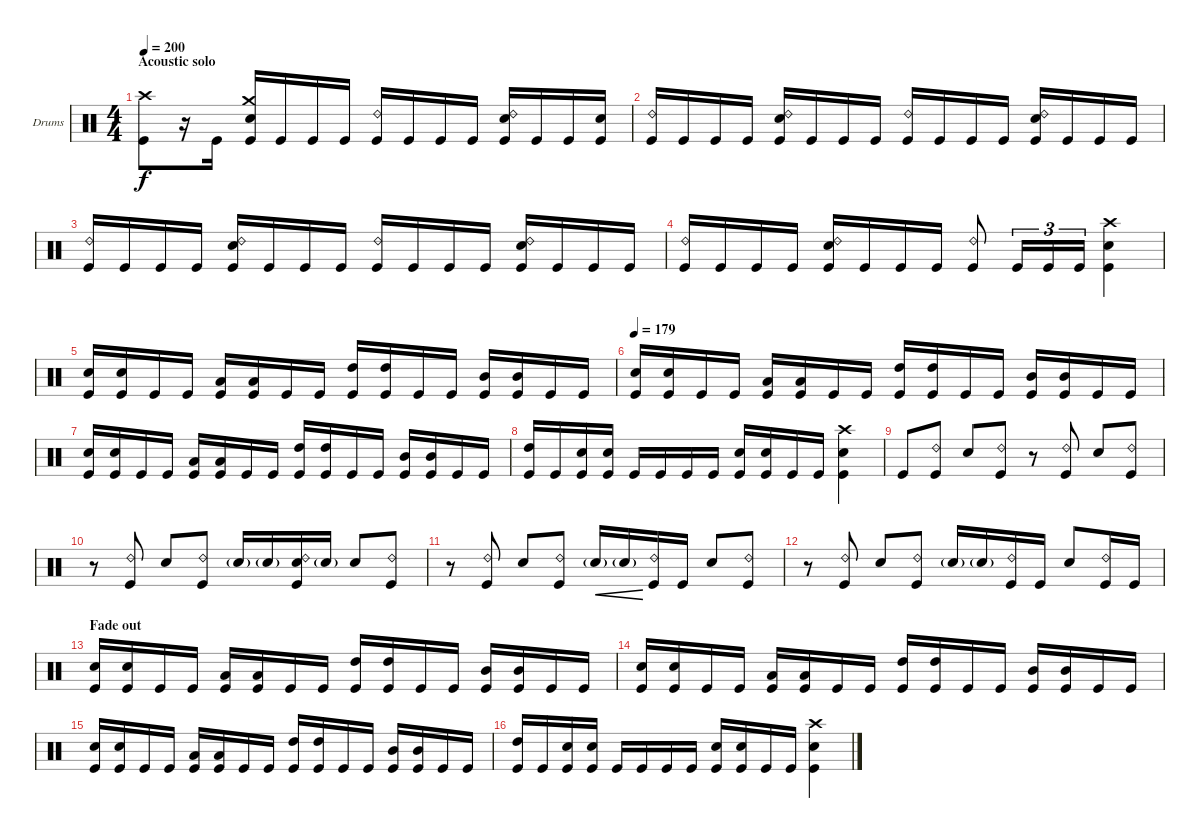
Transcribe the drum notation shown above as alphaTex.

\bracketExtendMode groupsimilarinstruments
\firstSystemTrackNameOrientation horizontal
\otherSystemsTrackNameOrientation horizontal
\track ("Drumkit" "Drums") {multiBarRest instrument percussion}
\staff {score}
\articulation defaults
\ts (4 4)
\section ("" "Acoustic solo")
\tempo 200
\clef neutral
\ks c
("Crash high (hit)" "Kick (hit)").8{dy f} r.16 "Kick (hit)".16 ("Crash medium (hit)" "Snare (hit) 2" "Kick (hit)").16 "Kick (hit)".16 "Kick (hit)".16 "Kick (hit)".16 ("Ride (bell) 2" "Kick (hit)").16 "Kick (hit)".16 "Kick (hit)".16 "Kick (hit)".16 ("Ride (bell) 2" "Snare (hit) 2" "Kick (hit)").16 "Kick (hit)".16 "Kick (hit)".16 ("Snare (hit) 2" "Kick (hit)").16 |
("Ride (bell) 2" "Kick (hit)").16 "Kick (hit)".16 "Kick (hit)".16 "Kick (hit)".16 ("Ride (bell) 2" "Snare (hit) 2" "Kick (hit)").16 "Kick (hit)".16 "Kick (hit)".16 "Kick (hit)".16 ("Ride (bell) 2" "Kick (hit)").16 "Kick (hit)".16 "Kick (hit)".16 "Kick (hit)".16 ("Ride (bell) 2" "Snare (hit) 2" "Kick (hit)").16 "Kick (hit)".16 "Kick (hit)".16 "Kick (hit)".16 |
("Ride (bell) 2" "Kick (hit)").16 "Kick (hit)".16 "Kick (hit)".16 "Kick (hit)".16 ("Ride (bell) 2" "Snare (hit) 2" "Kick (hit)").16 "Kick (hit)".16 "Kick (hit)".16 "Kick (hit)".16 ("Ride (bell) 2" "Kick (hit)").16 "Kick (hit)".16 "Kick (hit)".16 "Kick (hit)".16 ("Ride (bell) 2" "Snare (hit) 2" "Kick (hit)").16 "Kick (hit)".16 "Kick (hit)".16 "Kick (hit)".16 |
("Ride (bell) 2" "Kick (hit)").16 "Kick (hit)".16 "Kick (hit)".16 "Kick (hit)".16 ("Ride (bell) 2" "Snare (hit) 2" "Kick (hit)").16 "Kick (hit)".16 "Kick (hit)".16 "Kick (hit)".16 ("Ride (bell) 2" "Kick (hit)").8 "Kick (hit)".16{tu (3 2)} "Kick (hit)".16{tu (3 2)} "Kick (hit)".16{tu (3 2)} ("Crash high (hit)" "Snare (hit) 2" "Kick (hit)").4 |
("Snare (hit) 2" "Kick (hit)").16 ("Snare (hit) 2" "Kick (hit)").16 "Kick (hit)".16 "Kick (hit)".16 ("Low Tom (hit)" "Kick (hit)").16 ("Low Tom (hit)" "Kick (hit)").16 "Kick (hit)".16 "Kick (hit)".16 ("High Tom (hit)" "Kick (hit)").16 ("High Tom (hit)" "Kick (hit)").16 "Kick (hit)".16 "Kick (hit)".16 ("Mid Tom (hit)" "Kick (hit)").16 ("Mid Tom (hit)" "Kick (hit)").16 "Kick (hit)".16 "Kick (hit)".16 |
\tempo 179
("Snare (hit) 2" "Kick (hit)").16 ("Snare (hit) 2" "Kick (hit)").16 "Kick (hit)".16 "Kick (hit)".16 ("Low Tom (hit)" "Kick (hit)").16 ("Low Tom (hit)" "Kick (hit)").16 "Kick (hit)".16 "Kick (hit)".16 ("High Tom (hit)" "Kick (hit)").16 ("High Tom (hit)" "Kick (hit)").16 "Kick (hit)".16 "Kick (hit)".16 ("Mid Tom (hit)" "Kick (hit)").16 ("Mid Tom (hit)" "Kick (hit)").16 "Kick (hit)".16 "Kick (hit)".16 |
("Snare (hit) 2" "Kick (hit)").16 ("Snare (hit) 2" "Kick (hit)").16 "Kick (hit)".16 "Kick (hit)".16 ("Low Tom (hit)" "Kick (hit)").16 ("Low Tom (hit)" "Kick (hit)").16 "Kick (hit)".16 "Kick (hit)".16 ("High Tom (hit)" "Kick (hit)").16 ("High Tom (hit)" "Kick (hit)").16 "Kick (hit)".16 "Kick (hit)".16 ("Mid Tom (hit)" "Kick (hit)").16 ("Mid Tom (hit)" "Kick (hit)").16 "Kick (hit)".16 "Kick (hit)".16 |
("High Tom (hit)" "Kick (hit)").16 "Kick (hit)".16 ("Snare (hit) 2" "Kick (hit)").16 ("Snare (hit) 2" "Kick (hit)").16 "Kick (hit)".16 "Kick (hit)".16 "Kick (hit)".16 "Kick (hit)".16 ("Snare (hit) 2" "Kick (hit)").16 ("Snare (hit) 2" "Kick (hit)").16 "Kick (hit)".16 "Kick (hit)".16 ("Crash high (hit)" "Snare (hit) 2" "Kick (hit)").4 |
"Kick (hit)".8 ("Ride (bell) 2" "Kick (hit)").8 "Snare (hit) 2".8 ("Ride (bell) 2" "Kick (hit)").8 r.8 ("Ride (bell) 2" "Kick (hit)").8 "Snare (hit) 2".8 ("Ride (bell) 2" "Kick (hit)").8 |
r.8 ("Ride (bell) 2" "Kick (hit)").8 "Snare (hit) 2".8 ("Ride (bell) 2" "Kick (hit)").8 "Snare (hit) 2"{g}.16 "Snare (hit) 2"{g}.16 ("Ride (bell) 2" "Snare (hit) 2" "Kick (hit)").16 "Snare (hit) 2"{g}.16 "Snare (hit) 2".8 ("Ride (bell) 2" "Kick (hit)").8 |
r.8 ("Ride (bell) 2" "Kick (hit)").8 "Snare (hit) 2".8 ("Ride (bell) 2" "Kick (hit)").8 "Snare (hit) 2"{g}.16{cre} "Snare (hit) 2"{g}.16{cre} ("Ride (bell) 2" "Kick (hit)").16 "Kick (hit)".16 "Snare (hit) 2".8 ("Ride (bell) 2" "Kick (hit)").8 |
r.8 ("Ride (bell) 2" "Kick (hit)").8 "Snare (hit) 2".8 ("Ride (bell) 2" "Kick (hit)").8 "Snare (hit) 2"{g}.16 "Snare (hit) 2"{g}.16 ("Ride (bell) 2" "Kick (hit)").16 "Kick (hit)".16 "Snare (hit) 2".8 ("Ride (bell) 2" "Kick (hit)").16 "Kick (hit)".16 |
\section ("" "Fade out")
("Snare (hit) 2" "Kick (hit)").16 ("Snare (hit) 2" "Kick (hit)").16 "Kick (hit)".16 "Kick (hit)".16 ("Low Tom (hit)" "Kick (hit)").16 ("Low Tom (hit)" "Kick (hit)").16 "Kick (hit)".16 "Kick (hit)".16 ("High Tom (hit)" "Kick (hit)").16 ("High Tom (hit)" "Kick (hit)").16 "Kick (hit)".16 "Kick (hit)".16 ("Mid Tom (hit)" "Kick (hit)").16 ("Mid Tom (hit)" "Kick (hit)").16 "Kick (hit)".16 "Kick (hit)".16 |
("Snare (hit) 2" "Kick (hit)").16 ("Snare (hit) 2" "Kick (hit)").16 "Kick (hit)".16 "Kick (hit)".16 ("Low Tom (hit)" "Kick (hit)").16 ("Low Tom (hit)" "Kick (hit)").16 "Kick (hit)".16 "Kick (hit)".16 ("High Tom (hit)" "Kick (hit)").16 ("High Tom (hit)" "Kick (hit)").16 "Kick (hit)".16 "Kick (hit)".16 ("Mid Tom (hit)" "Kick (hit)").16 ("Mid Tom (hit)" "Kick (hit)").16 "Kick (hit)".16 "Kick (hit)".16 |
("Snare (hit) 2" "Kick (hit)").16 ("Snare (hit) 2" "Kick (hit)").16 "Kick (hit)".16 "Kick (hit)".16 ("Low Tom (hit)" "Kick (hit)").16 ("Low Tom (hit)" "Kick (hit)").16 "Kick (hit)".16 "Kick (hit)".16 ("High Tom (hit)" "Kick (hit)").16 ("High Tom (hit)" "Kick (hit)").16 "Kick (hit)".16 "Kick (hit)".16 ("Mid Tom (hit)" "Kick (hit)").16 ("Mid Tom (hit)" "Kick (hit)").16 "Kick (hit)".16 "Kick (hit)".16 |
("High Tom (hit)" "Kick (hit)").16 "Kick (hit)".16 ("Snare (hit) 2" "Kick (hit)").16 ("Snare (hit) 2" "Kick (hit)").16 "Kick (hit)".16 "Kick (hit)".16 "Kick (hit)".16 "Kick (hit)".16 ("Snare (hit) 2" "Kick (hit)").16 ("Snare (hit) 2" "Kick (hit)").16 "Kick (hit)".16 "Kick (hit)".16 ("Crash high (hit)" "Snare (hit) 2" "Kick (hit)").4
